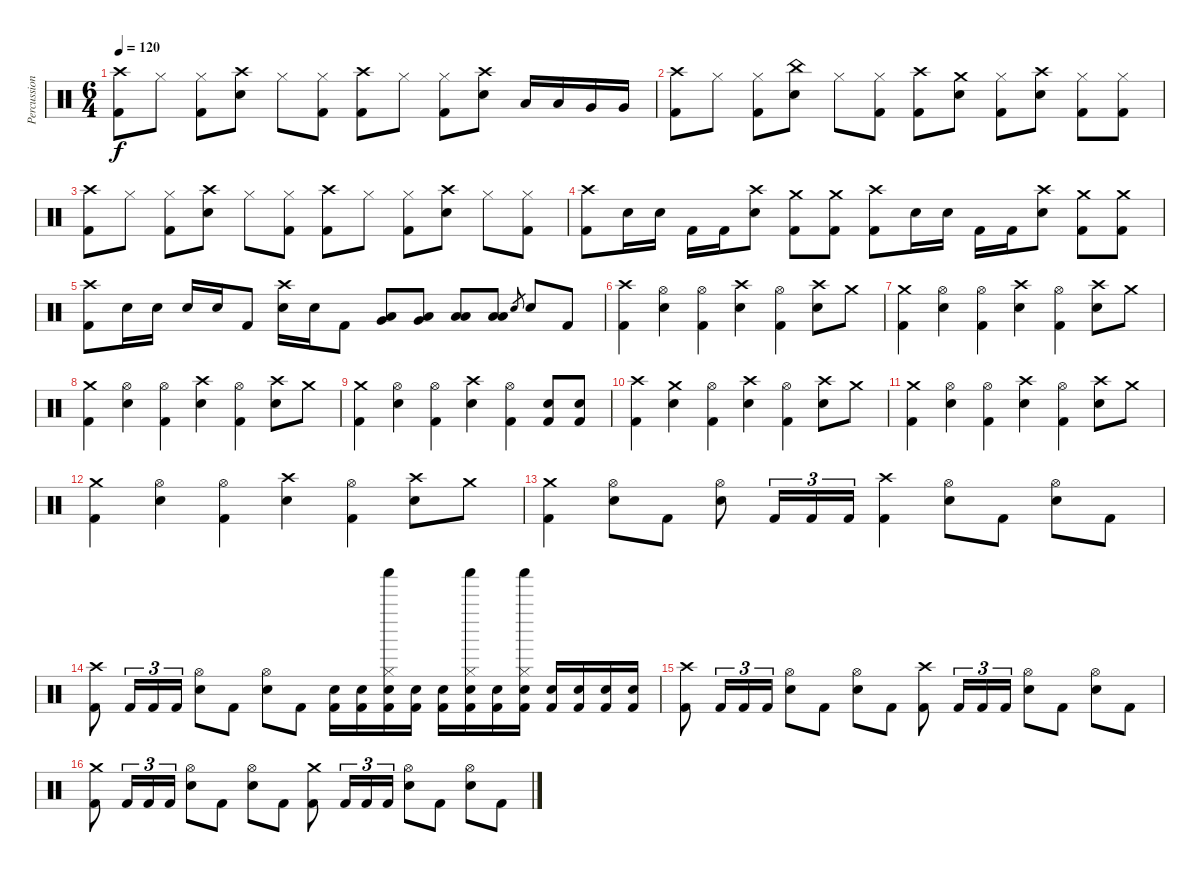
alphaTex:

\track ("Percussion" "Percussion") {instrument percussion}
\staff {score}
\articulation defaults
\ts (6 4)
\tempo 120
\clef neutral
\ks c
("Crash high (hit)" "Kick (hit) 2").8{dy f} "Hi-Hat (closed)".8 ("Hi-Hat (closed)" "Kick (hit) 2").8 ("Crash high (hit)" "Electric Snare (hit)").8 "Hi-Hat (closed)".8 ("Hi-Hat (closed)" "Kick (hit) 2").8 ("Crash high (hit)" "Kick (hit) 2").8 "Hi-Hat (closed)".8 ("Hi-Hat (closed)" "Kick (hit) 2").8 ("Crash high (hit)" "Electric Snare (hit)").8 "Low Tom (hit)".16 "Low Tom (hit)".16 "Very Low Tom (hit)".16 "Very Low Tom (hit)".16 |
("Crash high (hit)" "Kick (hit) 2").8 "Hi-Hat (closed)".8 ("Hi-Hat (closed)" "Kick (hit) 2").8 ("China (hit)" "Electric Snare (hit)").8 "Hi-Hat (closed)".8 ("Hi-Hat (closed)" "Kick (hit) 2").8 ("Crash high (hit)" "Kick (hit) 2").8 ("Crash medium (hit)" "Electric Snare (hit)").8 ("Hi-Hat (closed)" "Kick (hit) 2").8 ("Crash high (hit)" "Electric Snare (hit)").8 ("Hi-Hat (closed)" "Kick (hit) 2").8 ("Hi-Hat (closed)" "Kick (hit) 2").8 |
("Crash high (hit)" "Kick (hit) 2").8 "Hi-Hat (closed)".8 ("Hi-Hat (closed)" "Kick (hit) 2").8 ("Crash high (hit)" "Electric Snare (hit)").8 "Hi-Hat (closed)".8 ("Hi-Hat (closed)" "Kick (hit) 2").8 ("Crash high (hit)" "Kick (hit) 2").8 "Hi-Hat (closed)".8 ("Hi-Hat (closed)" "Kick (hit) 2").8 ("Crash high (hit)" "Electric Snare (hit)").8 "Hi-Hat (closed)".8 ("Hi-Hat (closed)" "Kick (hit) 2").8 |
("Crash high (hit)" "Kick (hit) 2").8 "Electric Snare (hit)".16 "Electric Snare (hit)".16 "Kick (hit) 2".16 "Kick (hit) 2".16 ("Crash high (hit)" "Electric Snare (hit)").8 ("Crash medium (hit)" "Kick (hit) 2").8 ("Crash medium (hit)" "Kick (hit) 2").8 ("Crash high (hit)" "Kick (hit) 2").8 "Electric Snare (hit)".16 "Electric Snare (hit)".16 "Kick (hit) 2".16 "Kick (hit) 2".16 ("Crash high (hit)" "Electric Snare (hit)").8 ("Crash medium (hit)" "Kick (hit) 2").8 ("Crash medium (hit)" "Kick (hit) 2").8 |
("Crash high (hit)" "Kick (hit) 2").8 "Electric Snare (hit)".16 "Electric Snare (hit)".16 "Electric Snare (hit)".16 "Electric Snare (hit)".16 "Kick (hit) 2".8 ("Crash high (hit)" "Electric Snare (hit)").16 "Electric Snare (hit)".16 "Kick (hit) 2".8 ("Low Tom (hit)" "Very Low Tom (hit)").8 ("Low Tom (hit)" "Very Low Tom (hit)").8 ("Low Tom (hit)" "Low Floor Tom (hit)").8 ("Low Tom (hit)" "Low Floor Tom (hit)").8 "Electric Snare (hit)".8{gr} "Electric Snare (hit)".8 "Kick (hit) 2".8 |
("Crash high (hit)" "Kick (hit) 2").4 ("Hi-Hat (open)" "Electric Snare (hit)").4 ("Hi-Hat (open)" "Kick (hit) 2").4 ("Crash high (hit)" "Electric Snare (hit)").4 ("Hi-Hat (open)" "Kick (hit) 2").4 ("Crash high (hit)" "Electric Snare (hit)").8 "Crash medium (hit)".8 |
("Crash medium (hit)" "Kick (hit) 2").4 ("Hi-Hat (open)" "Electric Snare (hit)").4 ("Hi-Hat (open)" "Kick (hit) 2").4 ("Crash high (hit)" "Electric Snare (hit)").4 ("Hi-Hat (open)" "Kick (hit) 2").4 ("Crash high (hit)" "Electric Snare (hit)").8 "Crash medium (hit)".8 |
("Crash medium (hit)" "Kick (hit) 2").4 ("Hi-Hat (open)" "Electric Snare (hit)").4 ("Hi-Hat (open)" "Kick (hit) 2").4 ("Crash high (hit)" "Electric Snare (hit)").4 ("Hi-Hat (open)" "Kick (hit) 2").4 ("Crash high (hit)" "Electric Snare (hit)").8 "Crash medium (hit)".8 |
("Crash medium (hit)" "Kick (hit) 2").4 ("Hi-Hat (open)" "Electric Snare (hit)").4 ("Hi-Hat (open)" "Kick (hit) 2").4 ("Crash high (hit)" "Electric Snare (hit)").4 ("Hi-Hat (open)" "Kick (hit) 2").4 ("Electric Snare (hit)" "Kick (hit) 2").8 ("Electric Snare (hit)" "Kick (hit) 2").8 |
("Crash high (hit)" "Kick (hit) 2").4 ("Crash medium (hit)" "Electric Snare (hit)").4 ("Hi-Hat (open)" "Kick (hit) 2").4 ("Crash high (hit)" "Electric Snare (hit)").4 ("Hi-Hat (open)" "Kick (hit) 2").4 ("Crash high (hit)" "Electric Snare (hit)").8 "Crash medium (hit)".8 |
("Crash medium (hit)" "Kick (hit) 2").4 ("Hi-Hat (open)" "Electric Snare (hit)").4 ("Hi-Hat (open)" "Kick (hit) 2").4 ("Crash high (hit)" "Electric Snare (hit)").4 ("Hi-Hat (open)" "Kick (hit) 2").4 ("Crash high (hit)" "Electric Snare (hit)").8 "Crash medium (hit)".8 |
("Crash medium (hit)" "Kick (hit) 2").4 ("Hi-Hat (open)" "Electric Snare (hit)").4 ("Hi-Hat (open)" "Kick (hit) 2").4 ("Crash high (hit)" "Electric Snare (hit)").4 ("Hi-Hat (open)" "Kick (hit) 2").4 ("Crash high (hit)" "Electric Snare (hit)").8 "Crash medium (hit)".8 |
("Crash medium (hit)" "Kick (hit) 2").4 ("Hi-Hat (open)" "Electric Snare (hit)").8 "Kick (hit) 2".8 ("Hi-Hat (open)" "Electric Snare (hit)").8 "Kick (hit) 2".16{tu (3 2)} "Kick (hit) 2".16{tu (3 2)} "Kick (hit) 2".16{tu (3 2)} ("Crash high (hit)" "Kick (hit) 2").4 ("Hi-Hat (open)" "Electric Snare (hit)").8 "Kick (hit) 2".8 ("Hi-Hat (open)" "Electric Snare (hit)").8 "Kick (hit) 2".8 |
("Crash high (hit)" "Kick (hit) 2").8 "Kick (hit) 2".16{tu (3 2)} "Kick (hit) 2".16{tu (3 2)} "Kick (hit) 2".16{tu (3 2)} ("Hi-Hat (open)" "Electric Snare (hit)").8 "Kick (hit) 2".8 ("Hi-Hat (open)" "Electric Snare (hit)").8 "Kick (hit) 2".8 ("Electric Snare (hit)" "Kick (hit) 2").16 ("Electric Snare (hit)" "Kick (hit) 2").16 ("Shaker (hit)" "Hi-Hat (closed)" "Electric Snare (hit)" "Kick (hit) 2").16 ("Electric Snare (hit)" "Kick (hit) 2").16 ("Electric Snare (hit)" "Kick (hit) 2").16 ("Shaker (hit)" "Hi-Hat (closed)" "Electric Snare (hit)" "Kick (hit) 2").16 ("Electric Snare (hit)" "Kick (hit) 2").16 ("Shaker (hit)" "Hi-Hat (closed)" "Electric Snare (hit)" "Kick (hit) 2").16 ("Electric Snare (hit)" "Kick (hit) 2").16 ("Electric Snare (hit)" "Kick (hit) 2").16 ("Electric Snare (hit)" "Kick (hit) 2").16 ("Electric Snare (hit)" "Kick (hit) 2").16 |
("Crash high (hit)" "Kick (hit) 2").8 "Kick (hit) 2".16{tu (3 2)} "Kick (hit) 2".16{tu (3 2)} "Kick (hit) 2".16{tu (3 2)} ("Hi-Hat (open)" "Electric Snare (hit)").8 "Kick (hit) 2".8 ("Hi-Hat (open)" "Electric Snare (hit)").8 "Kick (hit) 2".8 ("Crash high (hit)" "Kick (hit) 2").8 "Kick (hit) 2".16{tu (3 2)} "Kick (hit) 2".16{tu (3 2)} "Kick (hit) 2".16{tu (3 2)} ("Hi-Hat (open)" "Electric Snare (hit)").8 "Kick (hit) 2".8 ("Hi-Hat (open)" "Electric Snare (hit)").8 "Kick (hit) 2".8 |
("Crash medium (hit)" "Kick (hit) 2").8 "Kick (hit) 2".16{tu (3 2)} "Kick (hit) 2".16{tu (3 2)} "Kick (hit) 2".16{tu (3 2)} ("Hi-Hat (open)" "Electric Snare (hit)").8 "Kick (hit) 2".8 ("Hi-Hat (open)" "Electric Snare (hit)").8 "Kick (hit) 2".8 ("Crash medium (hit)" "Kick (hit) 2").8 "Kick (hit) 2".16{tu (3 2)} "Kick (hit) 2".16{tu (3 2)} "Kick (hit) 2".16{tu (3 2)} ("Hi-Hat (open)" "Electric Snare (hit)").8 "Kick (hit) 2".8 ("Hi-Hat (open)" "Electric Snare (hit)").8 "Kick (hit) 2".8
